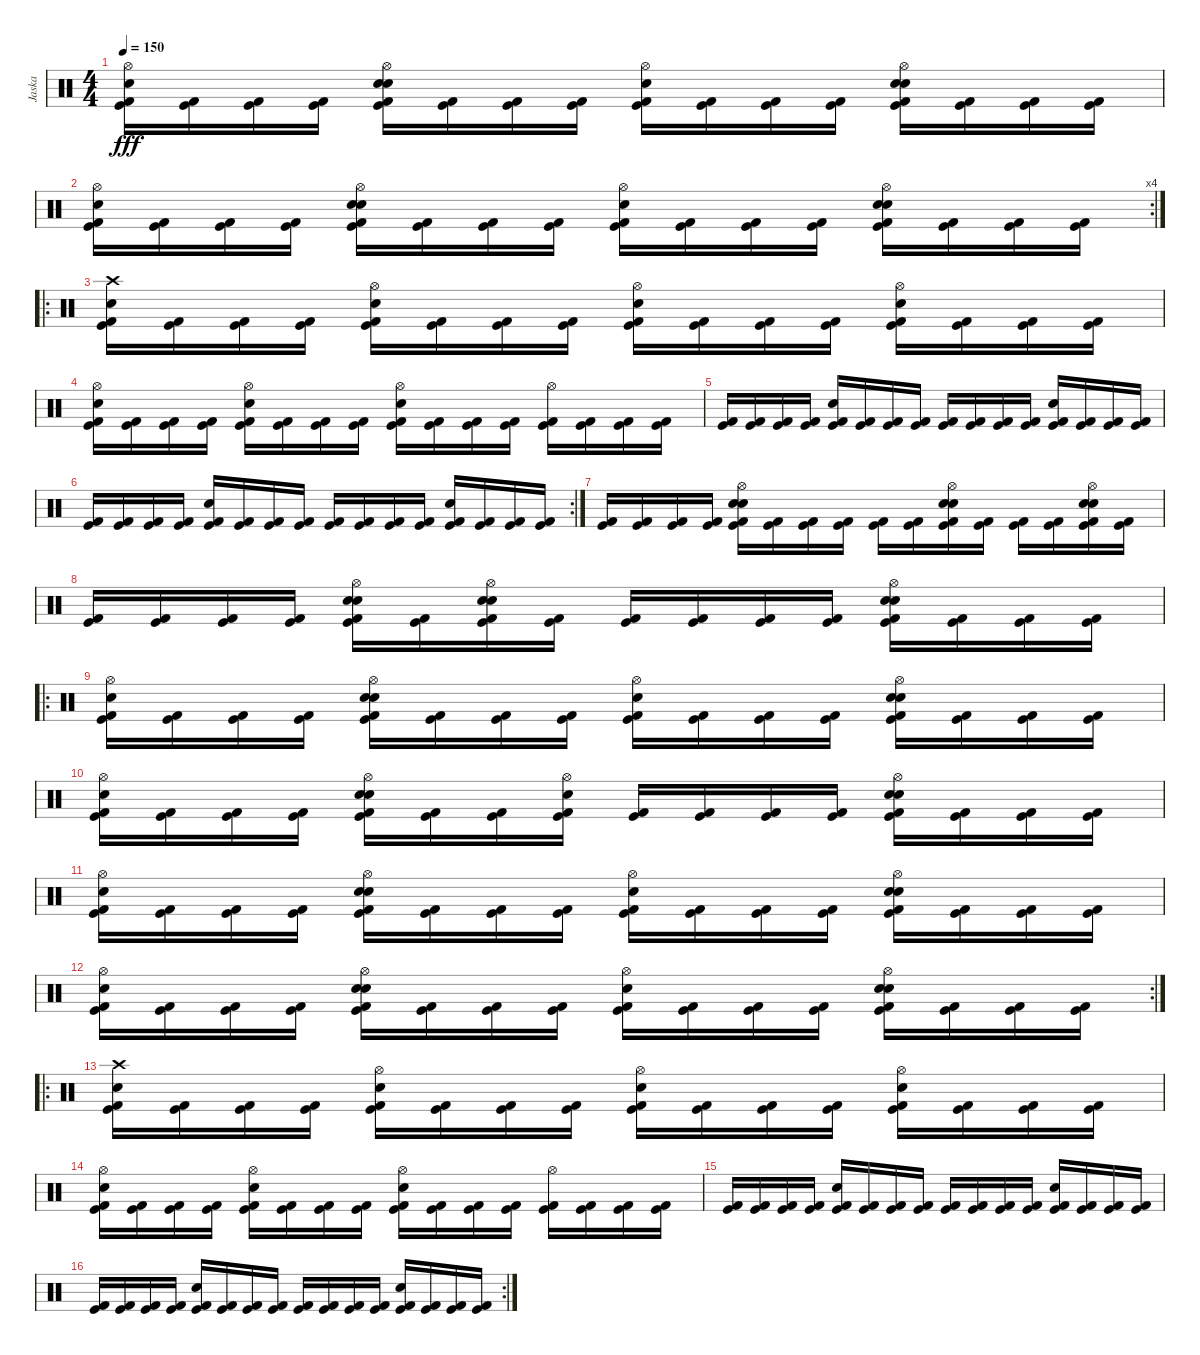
\track ("Jaska" "Jaska") {instrument percussion}
\staff {score}
\articulation defaults
\ts (4 4)
\tempo 150
\clef neutral
\ks c
("Hi-Hat (open)" "Snare (hit) 2" "Kick (hit)" "Kick (hit) 2").16{dy fff} ("Kick (hit)" "Kick (hit) 2").16 ("Kick (hit)" "Kick (hit) 2").16 ("Kick (hit)" "Kick (hit) 2").16 ("Hi-Hat (open)" "Electric Snare (hit)" "Snare (hit) 2" "Kick (hit)" "Kick (hit) 2").16 ("Kick (hit)" "Kick (hit) 2").16 ("Kick (hit)" "Kick (hit) 2").16 ("Kick (hit)" "Kick (hit) 2").16 ("Hi-Hat (open)" "Snare (hit) 2" "Kick (hit)" "Kick (hit) 2").16 ("Kick (hit)" "Kick (hit) 2").16 ("Kick (hit)" "Kick (hit) 2").16 ("Kick (hit)" "Kick (hit) 2").16 ("Hi-Hat (open)" "Electric Snare (hit)" "Snare (hit) 2" "Kick (hit)" "Kick (hit) 2").16 ("Kick (hit)" "Kick (hit) 2").16 ("Kick (hit)" "Kick (hit) 2").16 ("Kick (hit)" "Kick (hit) 2").16 |
\rc 4
("Hi-Hat (open)" "Snare (hit) 2" "Kick (hit)" "Kick (hit) 2").16 ("Kick (hit)" "Kick (hit) 2").16 ("Kick (hit)" "Kick (hit) 2").16 ("Kick (hit)" "Kick (hit) 2").16 ("Hi-Hat (open)" "Electric Snare (hit)" "Snare (hit) 2" "Kick (hit)" "Kick (hit) 2").16 ("Kick (hit)" "Kick (hit) 2").16 ("Kick (hit)" "Kick (hit) 2").16 ("Kick (hit)" "Kick (hit) 2").16 ("Hi-Hat (open)" "Snare (hit) 2" "Kick (hit)" "Kick (hit) 2").16 ("Kick (hit)" "Kick (hit) 2").16 ("Kick (hit)" "Kick (hit) 2").16 ("Kick (hit)" "Kick (hit) 2").16 ("Hi-Hat (open)" "Electric Snare (hit)" "Snare (hit) 2" "Kick (hit)" "Kick (hit) 2").16 ("Kick (hit)" "Kick (hit) 2").16 ("Kick (hit)" "Kick (hit) 2").16 ("Kick (hit)" "Kick (hit) 2").16 |
\ro
("Crash high (hit)" "Snare (hit) 2" "Kick (hit)" "Kick (hit) 2").16 ("Kick (hit)" "Kick (hit) 2").16 ("Kick (hit)" "Kick (hit) 2").16 ("Kick (hit)" "Kick (hit) 2").16 ("Hi-Hat (open)" "Snare (hit) 2" "Kick (hit)" "Kick (hit) 2").16 ("Kick (hit)" "Kick (hit) 2").16 ("Kick (hit)" "Kick (hit) 2").16 ("Kick (hit)" "Kick (hit) 2").16 ("Hi-Hat (open)" "Snare (hit) 2" "Kick (hit)" "Kick (hit) 2").16 ("Kick (hit)" "Kick (hit) 2").16 ("Kick (hit)" "Kick (hit) 2").16 ("Kick (hit)" "Kick (hit) 2").16 ("Hi-Hat (open)" "Snare (hit) 2" "Kick (hit)" "Kick (hit) 2").16 ("Kick (hit)" "Kick (hit) 2").16 ("Kick (hit)" "Kick (hit) 2").16 ("Kick (hit)" "Kick (hit) 2").16 |
("Hi-Hat (open)" "Snare (hit) 2" "Kick (hit)" "Kick (hit) 2").16 ("Kick (hit)" "Kick (hit) 2").16 ("Kick (hit)" "Kick (hit) 2").16 ("Kick (hit)" "Kick (hit) 2").16 ("Hi-Hat (open)" "Snare (hit) 2" "Kick (hit)" "Kick (hit) 2").16 ("Kick (hit)" "Kick (hit) 2").16 ("Kick (hit)" "Kick (hit) 2").16 ("Kick (hit)" "Kick (hit) 2").16 ("Hi-Hat (open)" "Snare (hit) 2" "Kick (hit)" "Kick (hit) 2").16 ("Kick (hit)" "Kick (hit) 2").16 ("Kick (hit)" "Kick (hit) 2").16 ("Kick (hit)" "Kick (hit) 2").16 ("Hi-Hat (open)" "Kick (hit)" "Kick (hit) 2").16 ("Kick (hit)" "Kick (hit) 2").16 ("Kick (hit)" "Kick (hit) 2").16 ("Kick (hit)" "Kick (hit) 2").16 |
("Kick (hit)" "Kick (hit) 2").16 ("Kick (hit)" "Kick (hit) 2").16 ("Kick (hit)" "Kick (hit) 2").16 ("Kick (hit)" "Kick (hit) 2").16 ("Snare (hit) 2" "Kick (hit)" "Kick (hit) 2").16 ("Kick (hit)" "Kick (hit) 2").16 ("Kick (hit)" "Kick (hit) 2").16 ("Kick (hit)" "Kick (hit) 2").16 ("Kick (hit)" "Kick (hit) 2").16 ("Kick (hit)" "Kick (hit) 2").16 ("Kick (hit)" "Kick (hit) 2").16 ("Kick (hit)" "Kick (hit) 2").16 ("Snare (hit) 2" "Kick (hit)" "Kick (hit) 2").16 ("Kick (hit)" "Kick (hit) 2").16 ("Kick (hit)" "Kick (hit) 2").16 ("Kick (hit)" "Kick (hit) 2").16 |
\rc 2
("Kick (hit)" "Kick (hit) 2").16 ("Kick (hit)" "Kick (hit) 2").16 ("Kick (hit)" "Kick (hit) 2").16 ("Kick (hit)" "Kick (hit) 2").16 ("Snare (hit) 2" "Kick (hit)" "Kick (hit) 2").16 ("Kick (hit)" "Kick (hit) 2").16 ("Kick (hit)" "Kick (hit) 2").16 ("Kick (hit)" "Kick (hit) 2").16 ("Kick (hit)" "Kick (hit) 2").16 ("Kick (hit)" "Kick (hit) 2").16 ("Kick (hit)" "Kick (hit) 2").16 ("Kick (hit)" "Kick (hit) 2").16 ("Snare (hit) 2" "Kick (hit)" "Kick (hit) 2").16 ("Kick (hit)" "Kick (hit) 2").16 ("Kick (hit)" "Kick (hit) 2").16 ("Kick (hit)" "Kick (hit) 2").16 |
("Kick (hit)" "Kick (hit) 2").16 ("Kick (hit)" "Kick (hit) 2").16 ("Kick (hit)" "Kick (hit) 2").16 ("Kick (hit)" "Kick (hit) 2").16 ("Hi-Hat (open)" "Electric Snare (hit)" "Snare (hit) 2" "Kick (hit)" "Kick (hit) 2").16 ("Kick (hit)" "Kick (hit) 2").16 ("Kick (hit)" "Kick (hit) 2").16 ("Kick (hit)" "Kick (hit) 2").16 ("Kick (hit)" "Kick (hit) 2").16 ("Kick (hit)" "Kick (hit) 2").16 ("Hi-Hat (open)" "Electric Snare (hit)" "Snare (hit) 2" "Kick (hit)" "Kick (hit) 2").16 ("Kick (hit)" "Kick (hit) 2").16 ("Kick (hit)" "Kick (hit) 2").16 ("Kick (hit)" "Kick (hit) 2").16 ("Hi-Hat (open)" "Electric Snare (hit)" "Snare (hit) 2" "Kick (hit)" "Kick (hit) 2").16 ("Kick (hit)" "Kick (hit) 2").16 |
("Kick (hit)" "Kick (hit) 2").16 ("Kick (hit)" "Kick (hit) 2").16 ("Kick (hit)" "Kick (hit) 2").16 ("Kick (hit)" "Kick (hit) 2").16 ("Hi-Hat (open)" "Electric Snare (hit)" "Snare (hit) 2" "Kick (hit)" "Kick (hit) 2").16 ("Kick (hit)" "Kick (hit) 2").16 ("Hi-Hat (open)" "Electric Snare (hit)" "Snare (hit) 2" "Kick (hit)" "Kick (hit) 2").16 ("Kick (hit)" "Kick (hit) 2").16 ("Kick (hit)" "Kick (hit) 2").16 ("Kick (hit)" "Kick (hit) 2").16 ("Kick (hit)" "Kick (hit) 2").16 ("Kick (hit)" "Kick (hit) 2").16 ("Hi-Hat (open)" "Electric Snare (hit)" "Snare (hit) 2" "Kick (hit)" "Kick (hit) 2").16 ("Kick (hit)" "Kick (hit) 2").16 ("Kick (hit)" "Kick (hit) 2").16 ("Kick (hit)" "Kick (hit) 2").16 |
\ro
("Hi-Hat (open)" "Snare (hit) 2" "Kick (hit)" "Kick (hit) 2").16 ("Kick (hit)" "Kick (hit) 2").16 ("Kick (hit)" "Kick (hit) 2").16 ("Kick (hit)" "Kick (hit) 2").16 ("Hi-Hat (open)" "Electric Snare (hit)" "Snare (hit) 2" "Kick (hit)" "Kick (hit) 2").16 ("Kick (hit)" "Kick (hit) 2").16 ("Kick (hit)" "Kick (hit) 2").16 ("Kick (hit)" "Kick (hit) 2").16 ("Hi-Hat (open)" "Snare (hit) 2" "Kick (hit)" "Kick (hit) 2").16 ("Kick (hit)" "Kick (hit) 2").16 ("Kick (hit)" "Kick (hit) 2").16 ("Kick (hit)" "Kick (hit) 2").16 ("Hi-Hat (open)" "Electric Snare (hit)" "Snare (hit) 2" "Kick (hit)" "Kick (hit) 2").16 ("Kick (hit)" "Kick (hit) 2").16 ("Kick (hit)" "Kick (hit) 2").16 ("Kick (hit)" "Kick (hit) 2").16 |
("Hi-Hat (open)" "Snare (hit) 2" "Kick (hit)" "Kick (hit) 2").16 ("Kick (hit)" "Kick (hit) 2").16 ("Kick (hit)" "Kick (hit) 2").16 ("Kick (hit)" "Kick (hit) 2").16 ("Hi-Hat (open)" "Electric Snare (hit)" "Snare (hit) 2" "Kick (hit)" "Kick (hit) 2").16 ("Kick (hit)" "Kick (hit) 2").16 ("Kick (hit)" "Kick (hit) 2").16 ("Hi-Hat (open)" "Snare (hit) 2" "Kick (hit)" "Kick (hit) 2").16 ("Kick (hit)" "Kick (hit) 2").16 ("Kick (hit)" "Kick (hit) 2").16 ("Kick (hit)" "Kick (hit) 2").16 ("Kick (hit)" "Kick (hit) 2").16 ("Hi-Hat (open)" "Electric Snare (hit)" "Snare (hit) 2" "Kick (hit)" "Kick (hit) 2").16 ("Kick (hit)" "Kick (hit) 2").16 ("Kick (hit)" "Kick (hit) 2").16 ("Kick (hit)" "Kick (hit) 2").16 |
("Hi-Hat (open)" "Snare (hit) 2" "Kick (hit)" "Kick (hit) 2").16 ("Kick (hit)" "Kick (hit) 2").16 ("Kick (hit)" "Kick (hit) 2").16 ("Kick (hit)" "Kick (hit) 2").16 ("Hi-Hat (open)" "Electric Snare (hit)" "Snare (hit) 2" "Kick (hit)" "Kick (hit) 2").16 ("Kick (hit)" "Kick (hit) 2").16 ("Kick (hit)" "Kick (hit) 2").16 ("Kick (hit)" "Kick (hit) 2").16 ("Hi-Hat (open)" "Snare (hit) 2" "Kick (hit)" "Kick (hit) 2").16 ("Kick (hit)" "Kick (hit) 2").16 ("Kick (hit)" "Kick (hit) 2").16 ("Kick (hit)" "Kick (hit) 2").16 ("Hi-Hat (open)" "Electric Snare (hit)" "Snare (hit) 2" "Kick (hit)" "Kick (hit) 2").16 ("Kick (hit)" "Kick (hit) 2").16 ("Kick (hit)" "Kick (hit) 2").16 ("Kick (hit)" "Kick (hit) 2").16 |
\rc 2
("Hi-Hat (open)" "Snare (hit) 2" "Kick (hit)" "Kick (hit) 2").16 ("Kick (hit)" "Kick (hit) 2").16 ("Kick (hit)" "Kick (hit) 2").16 ("Kick (hit)" "Kick (hit) 2").16 ("Hi-Hat (open)" "Electric Snare (hit)" "Snare (hit) 2" "Kick (hit)" "Kick (hit) 2").16 ("Kick (hit)" "Kick (hit) 2").16 ("Kick (hit)" "Kick (hit) 2").16 ("Kick (hit)" "Kick (hit) 2").16 ("Hi-Hat (open)" "Snare (hit) 2" "Kick (hit)" "Kick (hit) 2").16 ("Kick (hit)" "Kick (hit) 2").16 ("Kick (hit)" "Kick (hit) 2").16 ("Kick (hit)" "Kick (hit) 2").16 ("Hi-Hat (open)" "Electric Snare (hit)" "Snare (hit) 2" "Kick (hit)" "Kick (hit) 2").16 ("Kick (hit)" "Kick (hit) 2").16 ("Kick (hit)" "Kick (hit) 2").16 ("Kick (hit)" "Kick (hit) 2").16 |
\ro
("Crash high (hit)" "Snare (hit) 2" "Kick (hit)" "Kick (hit) 2").16 ("Kick (hit)" "Kick (hit) 2").16 ("Kick (hit)" "Kick (hit) 2").16 ("Kick (hit)" "Kick (hit) 2").16 ("Hi-Hat (open)" "Snare (hit) 2" "Kick (hit)" "Kick (hit) 2").16 ("Kick (hit)" "Kick (hit) 2").16 ("Kick (hit)" "Kick (hit) 2").16 ("Kick (hit)" "Kick (hit) 2").16 ("Hi-Hat (open)" "Snare (hit) 2" "Kick (hit)" "Kick (hit) 2").16 ("Kick (hit)" "Kick (hit) 2").16 ("Kick (hit)" "Kick (hit) 2").16 ("Kick (hit)" "Kick (hit) 2").16 ("Hi-Hat (open)" "Snare (hit) 2" "Kick (hit)" "Kick (hit) 2").16 ("Kick (hit)" "Kick (hit) 2").16 ("Kick (hit)" "Kick (hit) 2").16 ("Kick (hit)" "Kick (hit) 2").16 |
("Hi-Hat (open)" "Snare (hit) 2" "Kick (hit)" "Kick (hit) 2").16 ("Kick (hit)" "Kick (hit) 2").16 ("Kick (hit)" "Kick (hit) 2").16 ("Kick (hit)" "Kick (hit) 2").16 ("Hi-Hat (open)" "Snare (hit) 2" "Kick (hit)" "Kick (hit) 2").16 ("Kick (hit)" "Kick (hit) 2").16 ("Kick (hit)" "Kick (hit) 2").16 ("Kick (hit)" "Kick (hit) 2").16 ("Hi-Hat (open)" "Snare (hit) 2" "Kick (hit)" "Kick (hit) 2").16 ("Kick (hit)" "Kick (hit) 2").16 ("Kick (hit)" "Kick (hit) 2").16 ("Kick (hit)" "Kick (hit) 2").16 ("Hi-Hat (open)" "Kick (hit)" "Kick (hit) 2").16 ("Kick (hit)" "Kick (hit) 2").16 ("Kick (hit)" "Kick (hit) 2").16 ("Kick (hit)" "Kick (hit) 2").16 |
("Kick (hit)" "Kick (hit) 2").16 ("Kick (hit)" "Kick (hit) 2").16 ("Kick (hit)" "Kick (hit) 2").16 ("Kick (hit)" "Kick (hit) 2").16 ("Snare (hit) 2" "Kick (hit)" "Kick (hit) 2").16 ("Kick (hit)" "Kick (hit) 2").16 ("Kick (hit)" "Kick (hit) 2").16 ("Kick (hit)" "Kick (hit) 2").16 ("Kick (hit)" "Kick (hit) 2").16 ("Kick (hit)" "Kick (hit) 2").16 ("Kick (hit)" "Kick (hit) 2").16 ("Kick (hit)" "Kick (hit) 2").16 ("Snare (hit) 2" "Kick (hit)" "Kick (hit) 2").16 ("Kick (hit)" "Kick (hit) 2").16 ("Kick (hit)" "Kick (hit) 2").16 ("Kick (hit)" "Kick (hit) 2").16 |
\rc 2
("Kick (hit)" "Kick (hit) 2").16 ("Kick (hit)" "Kick (hit) 2").16 ("Kick (hit)" "Kick (hit) 2").16 ("Kick (hit)" "Kick (hit) 2").16 ("Snare (hit) 2" "Kick (hit)" "Kick (hit) 2").16 ("Kick (hit)" "Kick (hit) 2").16 ("Kick (hit)" "Kick (hit) 2").16 ("Kick (hit)" "Kick (hit) 2").16 ("Kick (hit)" "Kick (hit) 2").16 ("Kick (hit)" "Kick (hit) 2").16 ("Kick (hit)" "Kick (hit) 2").16 ("Kick (hit)" "Kick (hit) 2").16 ("Snare (hit) 2" "Kick (hit)" "Kick (hit) 2").16 ("Kick (hit)" "Kick (hit) 2").16 ("Kick (hit)" "Kick (hit) 2").16 ("Kick (hit)" "Kick (hit) 2").16
